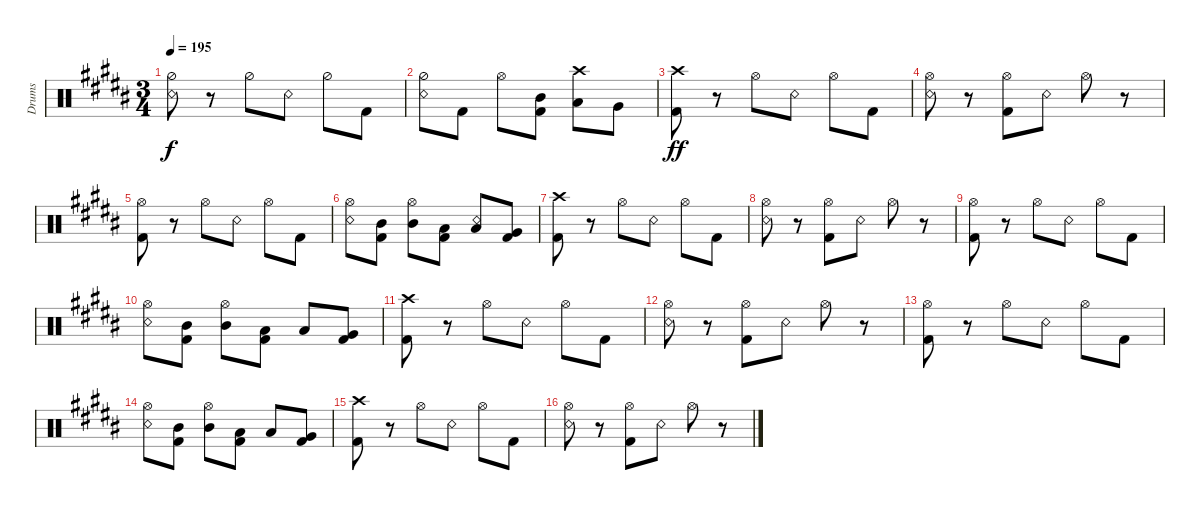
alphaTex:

\bracketExtendMode groupsimilarinstruments
\otherSystemsTrackNameOrientation horizontal
\track ("Drumkit" "Drums") {instrument percussion}
\staff {score}
\articulation defaults
\ts (3 4)
\tempo 195
\clef neutral
\ks b
("Hi-Hat (half)"{acc bb} "Snare (rim shot)"{acc bb}).8{dy f beam Down} r.8{beam Down} "Hi-Hat (half)"{acc bb}.8{beam Down} "Snare (rim shot)"{acc bb}.8{beam Down} "Hi-Hat (half)"{acc bb}.8{beam Down} "Kick (hit) 2"{acc bb}.8{beam Down} |
("Snare (rim shot)"{acc bb} "Hi-Hat (half)"{acc bb}).8{beam Down} "Kick (hit) 2"{acc bb}.8{beam Down} "Hi-Hat (open)"{acc bb}.8{beam Down} ("Mid Tom (hit)"{acc bb} "Kick (hit) 2"{acc bb}).8{beam Down} ("Low Tom (hit)"{acc bb} "Crash high (hit)"{acc bb}).8{beam Down} "Very Low Tom (hit)"{acc bb}.8{beam Down} |
("Kick (hit) 2"{acc bb} "Crash high (hit)"{acc bb}).8{dy ff beam Down} r.8{beam Down} "Hi-Hat (open)"{acc bb}.8{beam Down} "Snare (rim shot)"{acc bb}.8{beam Down} "Hi-Hat (open)"{acc bb}.8{beam Down} "Kick (hit) 2"{acc bb}.8{beam Down} |
("Snare (rim shot)"{acc bb} "Hi-Hat (open)"{acc bb}).8{beam Down} r.8{beam Down} ("Kick (hit) 2"{acc bb} "Hi-Hat (open)"{acc bb}).8{beam Down} "Snare (rim shot)"{acc bb}.8{beam Down} "Hi-Hat (open)"{acc bb}.8{beam Down} r.8{beam Down} |
("Kick (hit) 2"{acc bb} "Hi-Hat (open)"{acc bb}).8{beam Down} r.8{beam Down} "Hi-Hat (open)"{acc bb}.8{beam Down} "Snare (rim shot)"{acc bb}.8{beam Down} "Hi-Hat (open)"{acc bb}.8{beam Down} "Kick (hit) 2"{acc bb}.8{beam Down} |
("Snare (rim shot)"{acc bb} "Hi-Hat (open)"{acc bb}).8{beam Down} ("Kick (hit) 2"{acc bb} "Mid Tom (hit)"{acc bb}).8{beam Down} ("Hi-Hat (open)"{acc bb} "Mid Tom (hit)"{acc bb}).8{beam Down} ("Low Tom (hit)"{acc bb} "Kick (hit) 2"{acc bb}).8{beam Down} ("Low Tom (hit)"{acc bb} "Snare (rim shot)"{acc bb}).8{beam Up} ("Very Low Tom (hit)"{acc bb} "Kick (hit) 2"{acc bb}).8{beam Up} |
("Kick (hit) 2"{acc bb} "Crash high (hit)"{acc bb}).8{beam Down} r.8{beam Down} "Hi-Hat (open)"{acc bb}.8{beam Down} "Snare (rim shot)"{acc bb}.8{beam Down} "Hi-Hat (open)"{acc bb}.8{beam Down} "Kick (hit) 2"{acc bb}.8{beam Down} |
("Snare (rim shot)"{acc bb} "Hi-Hat (open)"{acc bb}).8{beam Down} r.8{beam Down} ("Kick (hit) 2"{acc bb} "Hi-Hat (open)"{acc bb}).8{beam Down} "Snare (rim shot)"{acc bb}.8{beam Down} "Hi-Hat (open)"{acc bb}.8{beam Down} r.8{beam Down} |
("Kick (hit) 2"{acc bb} "Hi-Hat (open)"{acc bb}).8{beam Down} r.8{beam Down} "Hi-Hat (open)"{acc bb}.8{beam Down} "Snare (rim shot)"{acc bb}.8{beam Down} "Hi-Hat (open)"{acc bb}.8{beam Down} "Kick (hit) 2"{acc bb}.8{beam Down} |
("Snare (rim shot)"{acc bb} "Hi-Hat (open)"{acc bb}).8{beam Down} ("Kick (hit) 2"{acc bb} "Mid Tom (hit)"{acc bb}).8{beam Down} ("Hi-Hat (open)"{acc bb} "Mid Tom (hit)"{acc bb}).8{beam Down} ("Low Tom (hit)"{acc bb} "Kick (hit) 2"{acc bb}).8{beam Down} "Low Tom (hit)"{acc bb}.8{beam Up} ("Very Low Tom (hit)"{acc bb} "Kick (hit) 2"{acc bb}).8{beam Up} |
("Kick (hit) 2"{acc bb} "Crash high (hit)"{acc bb}).8{beam Down} r.8{beam Down} "Hi-Hat (open)"{acc bb}.8{beam Down} "Snare (rim shot)"{acc bb}.8{beam Down} "Hi-Hat (open)"{acc bb}.8{beam Down} "Kick (hit) 2"{acc bb}.8{beam Down} |
("Snare (rim shot)"{acc bb} "Hi-Hat (open)"{acc bb}).8{beam Down} r.8{beam Down} ("Kick (hit) 2"{acc bb} "Hi-Hat (open)"{acc bb}).8{beam Down} "Snare (rim shot)"{acc bb}.8{beam Down} "Hi-Hat (open)"{acc bb}.8{beam Down} r.8{beam Down} |
("Kick (hit) 2"{acc bb} "Hi-Hat (open)"{acc bb}).8{beam Down} r.8{beam Down} "Hi-Hat (open)"{acc bb}.8{beam Down} "Snare (rim shot)"{acc bb}.8{beam Down} "Hi-Hat (open)"{acc bb}.8{beam Down} "Kick (hit) 2"{acc bb}.8{beam Down} |
("Snare (rim shot)"{acc bb} "Hi-Hat (open)"{acc bb}).8{beam Down} ("Kick (hit) 2"{acc bb} "Mid Tom (hit)"{acc bb}).8{beam Down} ("Hi-Hat (open)"{acc bb} "Mid Tom (hit)"{acc bb}).8{beam Down} ("Low Tom (hit)"{acc bb} "Kick (hit) 2"{acc bb}).8{beam Down} "Low Tom (hit)"{acc bb}.8{beam Up} ("Very Low Tom (hit)"{acc bb} "Kick (hit) 2"{acc bb}).8{beam Up} |
("Kick (hit) 2"{acc bb} "Crash high (hit)"{acc bb}).8{beam Down} r.8{beam Down} "Hi-Hat (open)"{acc bb}.8{beam Down} "Snare (rim shot)"{acc bb}.8{beam Down} "Hi-Hat (open)"{acc bb}.8{beam Down} "Kick (hit) 2"{acc bb}.8{beam Down} |
("Snare (rim shot)"{acc bb} "Hi-Hat (open)"{acc bb}).8{beam Down} r.8{beam Down} ("Kick (hit) 2"{acc bb} "Hi-Hat (open)"{acc bb}).8{beam Down} "Snare (rim shot)"{acc bb}.8{beam Down} "Hi-Hat (open)"{acc bb}.8{beam Down} r.8{beam Down}
